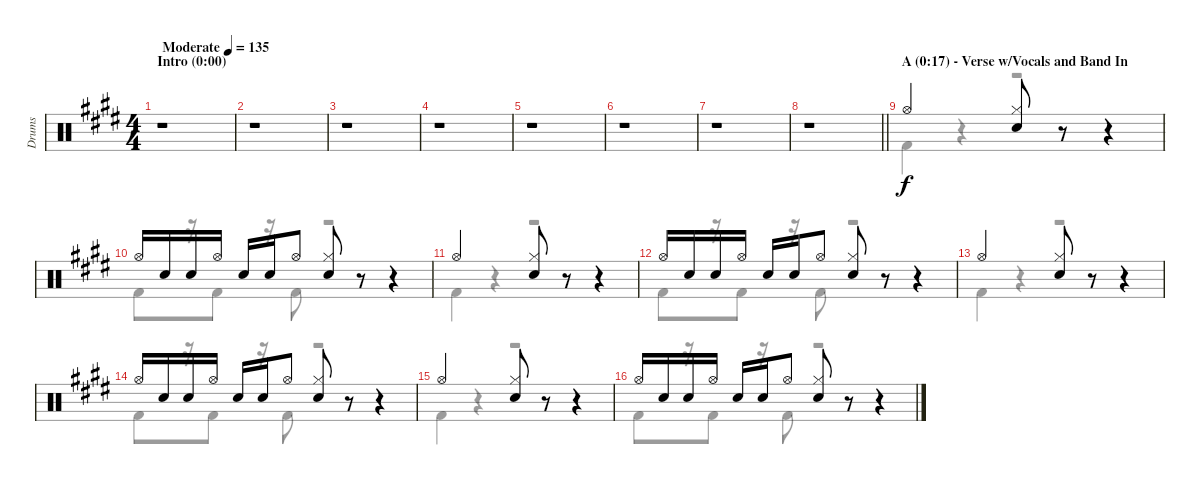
\track ("Drums" "Drums") {instrument percussion}
\staff {score}
\articulation defaults
\voice
\ts (4 4)
\section ("" "Intro (0:00)")
\tempo (135 "Moderate")
\clef neutral
\ks c#minor
r.1{dy f} |
r.1 |
r.1 |
r.1 |
r.1 |
r.1 |
r.1 |
\barLineRight lightlight
r.1 |
\section ("" "A (0:17) - Verse w/Vocals and Band In")
"Hi-Hat (open)".2 ("Hi-Hat (closed)" "Snare (hit) 2").8 r.8 r.4 |
"Hi-Hat (open)".16 "Snare (hit) 2".16 "Snare (hit) 2".16 "Hi-Hat (open)".16 "Snare (hit) 2".16 "Snare (hit) 2".16 "Hi-Hat (open)".8 ("Hi-Hat (closed)" "Snare (hit) 2").8 r.8 r.4 |
"Hi-Hat (open)".2 ("Hi-Hat (closed)" "Snare (hit) 2").8 r.8 r.4 |
"Hi-Hat (open)".16 "Snare (hit) 2".16 "Snare (hit) 2".16 "Hi-Hat (open)".16 "Snare (hit) 2".16 "Snare (hit) 2".16 "Hi-Hat (open)".8 ("Hi-Hat (closed)" "Snare (hit) 2").8 r.8 r.4 |
"Hi-Hat (open)".2 ("Hi-Hat (closed)" "Snare (hit) 2").8 r.8 r.4 |
"Hi-Hat (open)".16 "Snare (hit) 2".16 "Snare (hit) 2".16 "Hi-Hat (open)".16 "Snare (hit) 2".16 "Snare (hit) 2".16 "Hi-Hat (open)".8 ("Hi-Hat (closed)" "Snare (hit) 2").8 r.8 r.4 |
"Hi-Hat (open)".2 ("Hi-Hat (closed)" "Snare (hit) 2").8 r.8 r.4 |
"Hi-Hat (open)".16 "Snare (hit) 2".16 "Snare (hit) 2".16 "Hi-Hat (open)".16 "Snare (hit) 2".16 "Snare (hit) 2".16 "Hi-Hat (open)".8 ("Hi-Hat (closed)" "Snare (hit) 2").8 r.8 r.4
\voice
\clef neutral
\ottava regular
\simile none
\ks c#minor
|
|
|
|
|
|
|
\barLineRight lightlight
|
"Kick (hit) 2".4 r.4 r.2 |
"Kick (hit) 2".8 r.16 "Kick (hit) 2".8 r.16 "Kick (hit) 2".8 r.2 |
"Kick (hit) 2".4 r.4 r.2 |
"Kick (hit) 2".8 r.16 "Kick (hit) 2".8 r.16 "Kick (hit) 2".8 r.2 |
"Kick (hit) 2".4 r.4 r.2 |
"Kick (hit) 2".8 r.16 "Kick (hit) 2".8 r.16 "Kick (hit) 2".8 r.2 |
"Kick (hit) 2".4 r.4 r.2 |
"Kick (hit) 2".8 r.16 "Kick (hit) 2".8 r.16 "Kick (hit) 2".8 r.2
